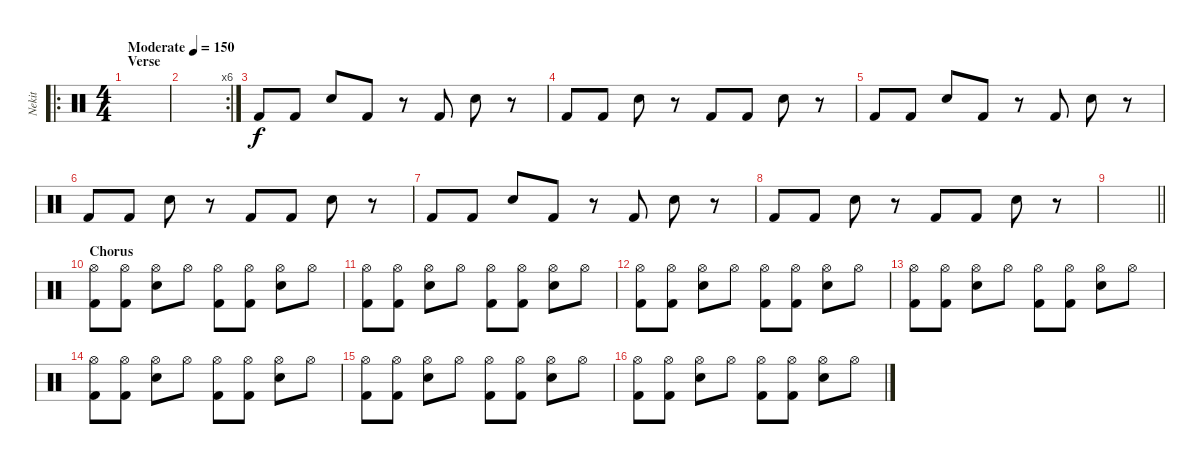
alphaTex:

\track ("Nekit" "Nekit") {instrument percussion}
\staff {score}
\articulation defaults
\ro
\ts (4 4)
\section ("" "Verse")
\tempo (150 "Moderate")
\clef neutral
\ks c
|
\rc 6
|
"Kick (hit) 2".8 "Kick (hit) 2".8 "Electric Snare (hit)".8 "Kick (hit) 2".8 r.8 "Kick (hit) 2".8 "Electric Snare (hit)".8 r.8 |
"Kick (hit) 2".8 "Kick (hit) 2".8 "Electric Snare (hit)".8 r.8 "Kick (hit) 2".8 "Kick (hit) 2".8 "Electric Snare (hit)".8 r.8 |
"Kick (hit) 2".8 "Kick (hit) 2".8 "Electric Snare (hit)".8 "Kick (hit) 2".8 r.8 "Kick (hit) 2".8 "Electric Snare (hit)".8 r.8 |
"Kick (hit) 2".8 "Kick (hit) 2".8 "Electric Snare (hit)".8 r.8 "Kick (hit) 2".8 "Kick (hit) 2".8 "Electric Snare (hit)".8 r.8 |
"Kick (hit) 2".8 "Kick (hit) 2".8 "Electric Snare (hit)".8 "Kick (hit) 2".8 r.8 "Kick (hit) 2".8 "Electric Snare (hit)".8 r.8 |
"Kick (hit) 2".8 "Kick (hit) 2".8 "Electric Snare (hit)".8 r.8 "Kick (hit) 2".8 "Kick (hit) 2".8 "Electric Snare (hit)".8 r.8 |
\barLineRight lightlight
|
\section ("" "Chorus")
("Hi-Hat (open)" "Kick (hit) 2").8 ("Hi-Hat (open)" "Kick (hit) 2").8 ("Hi-Hat (open)" "Electric Snare (hit)").8 "Hi-Hat (open)".8 ("Hi-Hat (open)" "Kick (hit) 2").8 ("Hi-Hat (open)" "Kick (hit) 2").8 ("Hi-Hat (open)" "Electric Snare (hit)").8 "Hi-Hat (open)".8 |
("Hi-Hat (open)" "Kick (hit) 2").8 ("Hi-Hat (open)" "Kick (hit) 2").8 ("Hi-Hat (open)" "Electric Snare (hit)").8 "Hi-Hat (open)".8 ("Hi-Hat (open)" "Kick (hit) 2").8 ("Hi-Hat (open)" "Kick (hit) 2").8 ("Hi-Hat (open)" "Electric Snare (hit)").8 "Hi-Hat (open)".8 |
("Hi-Hat (open)" "Kick (hit) 2").8 ("Hi-Hat (open)" "Kick (hit) 2").8 ("Hi-Hat (open)" "Electric Snare (hit)").8 "Hi-Hat (open)".8 ("Hi-Hat (open)" "Kick (hit) 2").8 ("Hi-Hat (open)" "Kick (hit) 2").8 ("Hi-Hat (open)" "Electric Snare (hit)").8 "Hi-Hat (open)".8 |
("Hi-Hat (open)" "Kick (hit) 2").8 ("Hi-Hat (open)" "Kick (hit) 2").8 ("Hi-Hat (open)" "Electric Snare (hit)").8 "Hi-Hat (open)".8 ("Hi-Hat (open)" "Kick (hit) 2").8 ("Hi-Hat (open)" "Kick (hit) 2").8 ("Hi-Hat (open)" "Electric Snare (hit)").8 "Hi-Hat (open)".8 |
("Hi-Hat (open)" "Kick (hit) 2").8 ("Hi-Hat (open)" "Kick (hit) 2").8 ("Hi-Hat (open)" "Electric Snare (hit)").8 "Hi-Hat (open)".8 ("Hi-Hat (open)" "Kick (hit) 2").8 ("Hi-Hat (open)" "Kick (hit) 2").8 ("Hi-Hat (open)" "Electric Snare (hit)").8 "Hi-Hat (open)".8 |
("Hi-Hat (open)" "Kick (hit) 2").8 ("Hi-Hat (open)" "Kick (hit) 2").8 ("Hi-Hat (open)" "Electric Snare (hit)").8 "Hi-Hat (open)".8 ("Hi-Hat (open)" "Kick (hit) 2").8 ("Hi-Hat (open)" "Kick (hit) 2").8 ("Hi-Hat (open)" "Electric Snare (hit)").8 "Hi-Hat (open)".8 |
("Hi-Hat (open)" "Kick (hit) 2").8 ("Hi-Hat (open)" "Kick (hit) 2").8 ("Hi-Hat (open)" "Electric Snare (hit)").8 "Hi-Hat (open)".8 ("Hi-Hat (open)" "Kick (hit) 2").8 ("Hi-Hat (open)" "Kick (hit) 2").8 ("Hi-Hat (open)" "Electric Snare (hit)").8 "Hi-Hat (open)".8
